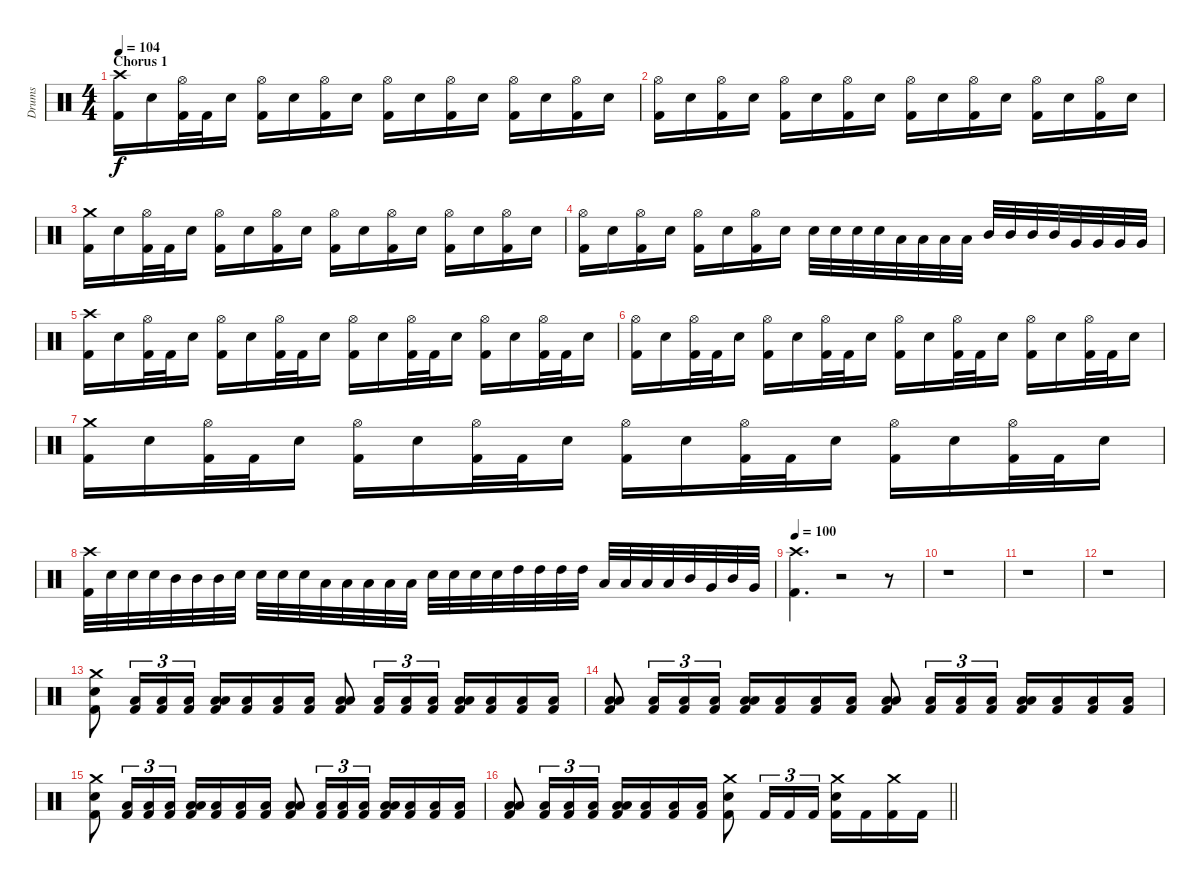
\track ("Drums" "Drums") {instrument percussion}
\staff {score}
\articulation defaults
\ts (4 4)
\section ("" "Chorus 1")
\tempo 104
\clef neutral
\ks c
("Crash high (hit)" "Kick (hit) 2").16{dy f} "Electric Snare (hit)".16 ("Hi-Hat (open)" "Kick (hit) 2").32 "Kick (hit) 2".32 "Electric Snare (hit)".16 ("Hi-Hat (open)" "Kick (hit) 2").16 "Electric Snare (hit)".16 ("Hi-Hat (open)" "Kick (hit) 2").16 "Electric Snare (hit)".16 ("Hi-Hat (open)" "Kick (hit) 2").16 "Electric Snare (hit)".16 ("Hi-Hat (open)" "Kick (hit) 2").16 "Electric Snare (hit)".16 ("Hi-Hat (open)" "Kick (hit) 2").16 "Electric Snare (hit)".16 ("Hi-Hat (open)" "Kick (hit) 2").16 "Electric Snare (hit)".16 |
("Hi-Hat (open)" "Kick (hit) 2").16 "Electric Snare (hit)".16 ("Hi-Hat (open)" "Kick (hit) 2").16 "Electric Snare (hit)".16 ("Hi-Hat (open)" "Kick (hit) 2").16 "Electric Snare (hit)".16 ("Hi-Hat (open)" "Kick (hit) 2").16 "Electric Snare (hit)".16 ("Hi-Hat (open)" "Kick (hit) 2").16 "Electric Snare (hit)".16 ("Hi-Hat (open)" "Kick (hit) 2").16 "Electric Snare (hit)".16 ("Hi-Hat (open)" "Kick (hit) 2").16 "Electric Snare (hit)".16 ("Hi-Hat (open)" "Kick (hit) 2").16 "Electric Snare (hit)".16 |
("Crash medium (hit)" "Kick (hit) 2").16 "Electric Snare (hit)".16 ("Hi-Hat (open)" "Kick (hit) 2").32 "Kick (hit) 2".32 "Electric Snare (hit)".16 ("Hi-Hat (open)" "Kick (hit) 2").16 "Electric Snare (hit)".16 ("Hi-Hat (open)" "Kick (hit) 2").16 "Electric Snare (hit)".16 ("Hi-Hat (open)" "Kick (hit) 2").16 "Electric Snare (hit)".16 ("Hi-Hat (open)" "Kick (hit) 2").16 "Electric Snare (hit)".16 ("Hi-Hat (open)" "Kick (hit) 2").16 "Electric Snare (hit)".16 ("Hi-Hat (open)" "Kick (hit) 2").16 "Electric Snare (hit)".16 |
("Hi-Hat (open)" "Kick (hit) 2").16 "Electric Snare (hit)".16 ("Hi-Hat (open)" "Kick (hit) 2").16 "Electric Snare (hit)".16 ("Hi-Hat (open)" "Kick (hit) 2").16 "Electric Snare (hit)".16 ("Hi-Hat (open)" "Kick (hit) 2").16 "Electric Snare (hit)".16 "Electric Snare (hit)".32 "Electric Snare (hit)".32 "Electric Snare (hit)".32 "Electric Snare (hit)".32 "Low Tom (hit)".32 "Low Tom (hit)".32 "Low Tom (hit)".32 "Low Tom (hit)".32 "Mid Tom (hit)".32 "Mid Tom (hit)".32 "Mid Tom (hit)".32 "Mid Tom (hit)".32 "Very Low Tom (hit)".32 "Very Low Tom (hit)".32 "Very Low Tom (hit)".32 "Very Low Tom (hit)".32 |
("Crash high (hit)" "Kick (hit) 2").16 "Electric Snare (hit)".16 ("Hi-Hat (open)" "Kick (hit) 2").32 "Kick (hit) 2".32 "Electric Snare (hit)".16 ("Hi-Hat (open)" "Kick (hit) 2").16 "Electric Snare (hit)".16 ("Hi-Hat (open)" "Kick (hit) 2").32 "Kick (hit) 2".32 "Electric Snare (hit)".16 ("Hi-Hat (open)" "Kick (hit) 2").16 "Electric Snare (hit)".16 ("Hi-Hat (open)" "Kick (hit) 2").32 "Kick (hit) 2".32 "Electric Snare (hit)".16 ("Hi-Hat (open)" "Kick (hit) 2").16 "Electric Snare (hit)".16 ("Hi-Hat (open)" "Kick (hit) 2").32 "Kick (hit) 2".32 "Electric Snare (hit)".16 |
("Hi-Hat (open)" "Kick (hit) 2").16 "Electric Snare (hit)".16 ("Hi-Hat (open)" "Kick (hit) 2").32 "Kick (hit) 2".32 "Electric Snare (hit)".16 ("Hi-Hat (open)" "Kick (hit) 2").16 "Electric Snare (hit)".16 ("Hi-Hat (open)" "Kick (hit) 2").32 "Kick (hit) 2".32 "Electric Snare (hit)".16 ("Hi-Hat (open)" "Kick (hit) 2").16 "Electric Snare (hit)".16 ("Hi-Hat (open)" "Kick (hit) 2").32 "Kick (hit) 2".32 "Electric Snare (hit)".16 ("Hi-Hat (open)" "Kick (hit) 2").16 "Electric Snare (hit)".16 ("Hi-Hat (open)" "Kick (hit) 2").32 "Kick (hit) 2".32 "Electric Snare (hit)".16 |
("Crash medium (hit)" "Kick (hit) 2").16 "Electric Snare (hit)".16 ("Hi-Hat (open)" "Kick (hit) 2").32 "Kick (hit) 2".32 "Electric Snare (hit)".16 ("Hi-Hat (open)" "Kick (hit) 2").16 "Electric Snare (hit)".16 ("Hi-Hat (open)" "Kick (hit) 2").32 "Kick (hit) 2".32 "Electric Snare (hit)".16 ("Hi-Hat (open)" "Kick (hit) 2").16 "Electric Snare (hit)".16 ("Hi-Hat (open)" "Kick (hit) 2").32 "Kick (hit) 2".32 "Electric Snare (hit)".16 ("Hi-Hat (open)" "Kick (hit) 2").16 "Electric Snare (hit)".16 ("Hi-Hat (open)" "Kick (hit) 2").32 "Kick (hit) 2".32 "Electric Snare (hit)".16 |
("Crash high (hit)" "Kick (hit) 2").32 "Electric Snare (hit)".32 "Electric Snare (hit)".32 "Electric Snare (hit)".32 "Mid Tom (hit)".32 "Mid Tom (hit)".32 "Mid Tom (hit)".32 "Electric Snare (hit)".32 "Electric Snare (hit)".32 "Electric Snare (hit)".32 "Electric Snare (hit)".32 "Low Tom (hit)".32 "Low Tom (hit)".32 "Low Tom (hit)".32 "Low Tom (hit)".32 "Low Tom (hit)".32 "Electric Snare (hit)".32 "Electric Snare (hit)".32 "Electric Snare (hit)".32 "Electric Snare (hit)".32 "High Tom (hit)".32 "High Tom (hit)".32 "High Tom (hit)".32 "High Tom (hit)".32 "Low Tom (hit)".32 "Low Tom (hit)".32 "Low Tom (hit)".32 "Low Tom (hit)".32 "Mid Tom (hit)".32 "Very Low Tom (hit)".32 "Mid Tom (hit)".32 "Very Low Tom (hit)".32 |
\tempo 100
("Crash high (hit)" "Kick (hit) 2").4{d} r.2 r.8 |
r.1 |
r.1 |
r.1 |
("Crash medium (hit)" "Electric Snare (hit)" "Kick (hit) 2").8 ("Low Floor Tom (hit)" "Kick (hit) 2").16{tu (3 2)} ("Low Floor Tom (hit)" "Kick (hit) 2").16{tu (3 2)} ("Low Floor Tom (hit)" "Kick (hit) 2").16{tu (3 2)} ("Low Tom (hit)" "Low Floor Tom (hit)" "Kick (hit) 2").16 ("Low Tom (hit)" "Kick (hit) 2").16 ("Low Tom (hit)" "Kick (hit) 2").16 ("Low Tom (hit)" "Kick (hit) 2").16 ("Low Tom (hit)" "Low Floor Tom (hit)" "Kick (hit) 2").8 ("Low Floor Tom (hit)" "Kick (hit) 2").16{tu (3 2)} ("Low Floor Tom (hit)" "Kick (hit) 2").16{tu (3 2)} ("Low Floor Tom (hit)" "Kick (hit) 2").16{tu (3 2)} ("Low Tom (hit)" "Low Floor Tom (hit)" "Kick (hit) 2").16 ("Low Tom (hit)" "Kick (hit) 2").16 ("Low Tom (hit)" "Kick (hit) 2").16 ("Low Tom (hit)" "Kick (hit) 2").16 |
("Low Tom (hit)" "Low Floor Tom (hit)" "Kick (hit) 2").8 ("Low Floor Tom (hit)" "Kick (hit) 2").16{tu (3 2)} ("Low Floor Tom (hit)" "Kick (hit) 2").16{tu (3 2)} ("Low Floor Tom (hit)" "Kick (hit) 2").16{tu (3 2)} ("Low Tom (hit)" "Low Floor Tom (hit)" "Kick (hit) 2").16 ("Low Tom (hit)" "Kick (hit) 2").16 ("Low Tom (hit)" "Kick (hit) 2").16 ("Low Tom (hit)" "Kick (hit) 2").16 ("Low Tom (hit)" "Low Floor Tom (hit)" "Kick (hit) 2").8 ("Low Floor Tom (hit)" "Kick (hit) 2").16{tu (3 2)} ("Low Floor Tom (hit)" "Kick (hit) 2").16{tu (3 2)} ("Low Floor Tom (hit)" "Kick (hit) 2").16{tu (3 2)} ("Low Tom (hit)" "Low Floor Tom (hit)" "Kick (hit) 2").16 ("Low Tom (hit)" "Kick (hit) 2").16 ("Low Tom (hit)" "Kick (hit) 2").16 ("Low Tom (hit)" "Kick (hit) 2").16 |
("Crash medium (hit)" "Electric Snare (hit)" "Kick (hit) 2").8 ("Low Floor Tom (hit)" "Kick (hit) 2").16{tu (3 2)} ("Low Floor Tom (hit)" "Kick (hit) 2").16{tu (3 2)} ("Low Floor Tom (hit)" "Kick (hit) 2").16{tu (3 2)} ("Low Tom (hit)" "Low Floor Tom (hit)" "Kick (hit) 2").16 ("Low Tom (hit)" "Kick (hit) 2").16 ("Low Tom (hit)" "Kick (hit) 2").16 ("Low Tom (hit)" "Kick (hit) 2").16 ("Low Tom (hit)" "Low Floor Tom (hit)" "Kick (hit) 2").8 ("Low Floor Tom (hit)" "Kick (hit) 2").16{tu (3 2)} ("Low Floor Tom (hit)" "Kick (hit) 2").16{tu (3 2)} ("Low Floor Tom (hit)" "Kick (hit) 2").16{tu (3 2)} ("Low Tom (hit)" "Low Floor Tom (hit)" "Kick (hit) 2").16 ("Low Tom (hit)" "Kick (hit) 2").16 ("Low Tom (hit)" "Kick (hit) 2").16 ("Low Tom (hit)" "Kick (hit) 2").16 |
\barLineRight lightlight
("Low Tom (hit)" "Low Floor Tom (hit)" "Kick (hit) 2").8 ("Low Floor Tom (hit)" "Kick (hit) 2").16{tu (3 2)} ("Low Floor Tom (hit)" "Kick (hit) 2").16{tu (3 2)} ("Low Floor Tom (hit)" "Kick (hit) 2").16{tu (3 2)} ("Low Tom (hit)" "Low Floor Tom (hit)" "Kick (hit) 2").16 ("Low Tom (hit)" "Kick (hit) 2").16 ("Low Tom (hit)" "Kick (hit) 2").16 ("Low Tom (hit)" "Kick (hit) 2").16 ("Crash medium (hit)" "Electric Snare (hit)" "Kick (hit) 2").8 "Kick (hit) 2".16{tu (3 2)} "Kick (hit) 2".16{tu (3 2)} "Kick (hit) 2".16{tu (3 2)} ("Crash medium (hit)" "Electric Snare (hit)" "Kick (hit) 2").16 "Kick (hit) 2".16 ("Crash medium (hit)" "Kick (hit) 2").16 "Kick (hit) 2".16
